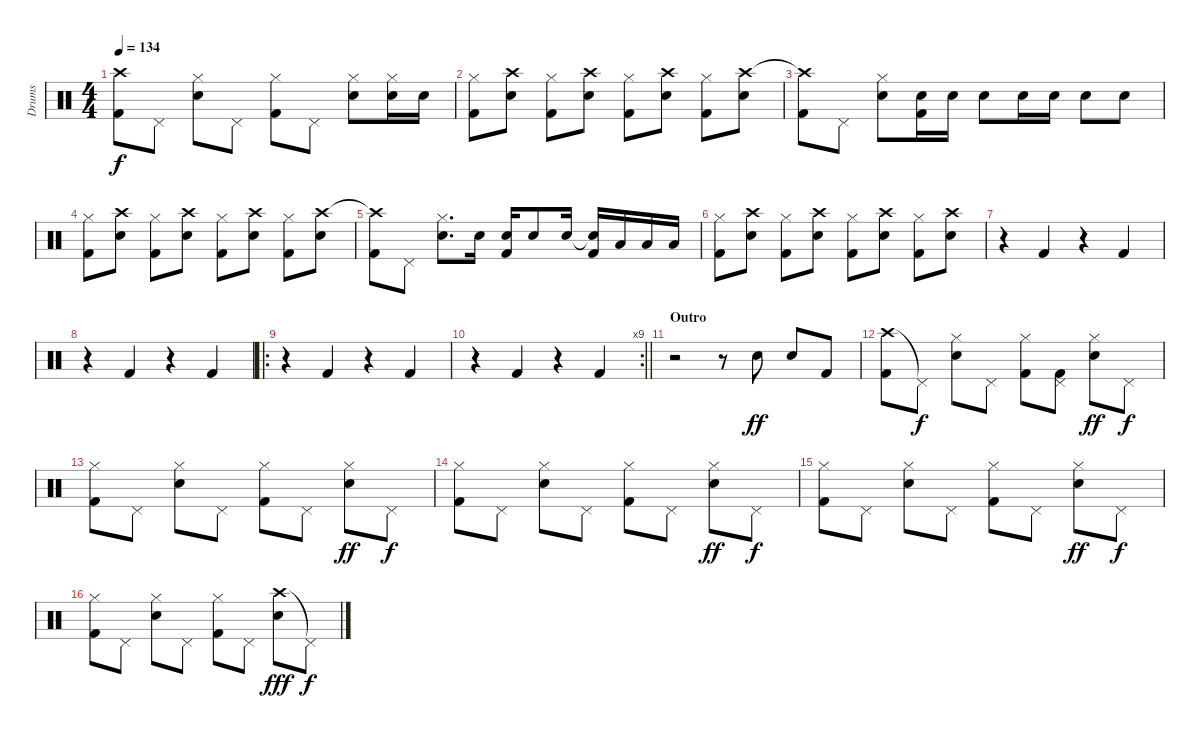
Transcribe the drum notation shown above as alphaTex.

\track ("Drums" "Drums") {instrument percussion}
\staff {score}
\articulation defaults
\ts (4 4)
\tempo 134
\clef neutral
\ks c
("Crash high (hit)"{t} "Kick (hit) 2").8{dy f} "Pedal Hi-Hat (hit)".8 ("Hi-Hat (closed)" "Snare (hit) 2").8 "Pedal Hi-Hat (hit)".8 ("Hi-Hat (closed)" "Kick (hit) 2").8 "Pedal Hi-Hat (hit)".8 ("Hi-Hat (closed)" "Snare (hit) 2").8 ("Hi-Hat (closed)" "Snare (hit) 2").16 "Snare (hit) 2".16 |
("Hi-Hat (closed)" "Kick (hit) 2").8 ("Crash high (hit)" "Snare (hit) 2").8 ("Hi-Hat (closed)" "Kick (hit) 2").8 ("Crash high (hit)" "Snare (hit) 2").8 ("Hi-Hat (closed)" "Kick (hit) 2").8 ("Crash high (hit)" "Snare (hit) 2").8 ("Hi-Hat (closed)" "Kick (hit) 2").8 ("Crash high (hit)" "Snare (hit) 2").8 |
("Crash high (hit)"{t} "Kick (hit) 2").8 "Pedal Hi-Hat (hit)".8 ("Hi-Hat (closed)" "Snare (hit) 2").8 ("Snare (hit) 2" "Kick (hit) 2").16 "Snare (hit) 2".16 "Snare (hit) 2".8 "Snare (hit) 2".16 "Snare (hit) 2".16 "Snare (hit) 2".8 "Snare (hit) 2".8 |
("Hi-Hat (closed)" "Kick (hit) 2").8 ("Crash high (hit)" "Snare (hit) 2").8 ("Hi-Hat (closed)" "Kick (hit) 2").8 ("Crash high (hit)" "Snare (hit) 2").8 ("Hi-Hat (closed)" "Kick (hit) 2").8 ("Crash high (hit)" "Snare (hit) 2").8 ("Hi-Hat (closed)" "Kick (hit) 2").8 ("Crash high (hit)" "Snare (hit) 2").8 |
("Crash high (hit)"{t} "Kick (hit) 2").8 "Pedal Hi-Hat (hit)".8 ("Hi-Hat (closed)" "Snare (hit) 2").8{d} "Snare (hit) 2".16 ("Snare (hit) 2" "Kick (hit) 2").16 "Snare (hit) 2".8 "Snare (hit) 2".16 ("Snare (hit)"{t} "Kick (hit) 2").16 "Low Tom (hit)".16 "Low Tom (hit)".16 "Low Tom (hit)".16 |
("Hi-Hat (closed)" "Kick (hit) 2").8 ("Crash high (hit)" "Snare (hit) 2").8 ("Hi-Hat (closed)" "Kick (hit) 2").8 ("Crash high (hit)" "Snare (hit) 2").8 ("Hi-Hat (closed)" "Kick (hit) 2").8 ("Crash high (hit)" "Snare (hit) 2").8 ("Hi-Hat (closed)" "Kick (hit) 2").8 ("Crash high (hit)" "Snare (hit) 2").8 |
r.4 "Kick (hit) 2".4 r.4 "Kick (hit) 2".4 |
r.4 "Kick (hit) 2".4 r.4 "Kick (hit) 2".4 |
\ro
r.4 "Kick (hit) 2".4 r.4 "Kick (hit) 2".4 |
\rc 9
\barLineRight lightlight
r.4 "Kick (hit) 2".4 r.4 "Kick (hit) 2".4 |
\section ("" "Outro")
r.2 r.8 "Snare (hit) 2".8{dy ff} "Snare (hit) 2".8 "Kick (hit) 2".8 |
("Crash high (hit)" "Kick (hit) 2").8 "Pedal Hi-Hat (hit)"{t}.8{dy f} ("Hi-Hat (closed)" "Snare (hit) 2").8 "Pedal Hi-Hat (hit)".8 ("Hi-Hat (closed)" "Kick (hit) 2").8 ("Pedal Hi-Hat (hit)" "Kick (hit) 2").8 ("Hi-Hat (closed)" "Snare (hit) 2").8{dy ff} "Pedal Hi-Hat (hit)".8{dy f} |
("Hi-Hat (closed)" "Kick (hit) 2").8 "Pedal Hi-Hat (hit)".8 ("Hi-Hat (closed)" "Snare (hit) 2").8 "Pedal Hi-Hat (hit)".8 ("Hi-Hat (closed)" "Kick (hit) 2").8 "Pedal Hi-Hat (hit)".8 ("Hi-Hat (closed)" "Snare (hit) 2").8{dy ff} "Pedal Hi-Hat (hit)".8{dy f} |
("Hi-Hat (closed)" "Kick (hit) 2").8 "Pedal Hi-Hat (hit)".8 ("Hi-Hat (closed)" "Snare (hit) 2").8 "Pedal Hi-Hat (hit)".8 ("Hi-Hat (closed)" "Kick (hit) 2").8 "Pedal Hi-Hat (hit)".8 ("Hi-Hat (closed)" "Snare (hit) 2").8{dy ff} "Pedal Hi-Hat (hit)".8{dy f} |
("Hi-Hat (closed)" "Kick (hit) 2").8 "Pedal Hi-Hat (hit)".8 ("Hi-Hat (closed)" "Snare (hit) 2").8 "Pedal Hi-Hat (hit)".8 ("Hi-Hat (closed)" "Kick (hit) 2").8 "Pedal Hi-Hat (hit)".8 ("Hi-Hat (closed)" "Snare (hit) 2").8{dy ff} "Pedal Hi-Hat (hit)".8{dy f} |
("Hi-Hat (closed)" "Kick (hit) 2").8 "Pedal Hi-Hat (hit)".8 ("Hi-Hat (closed)" "Snare (hit) 2").8 "Pedal Hi-Hat (hit)".8 ("Hi-Hat (closed)" "Kick (hit) 2").8 "Pedal Hi-Hat (hit)".8 ("Crash high (hit)" "Snare (hit) 2").8{dy fff} "Pedal Hi-Hat (hit)"{t}.8{dy f}
